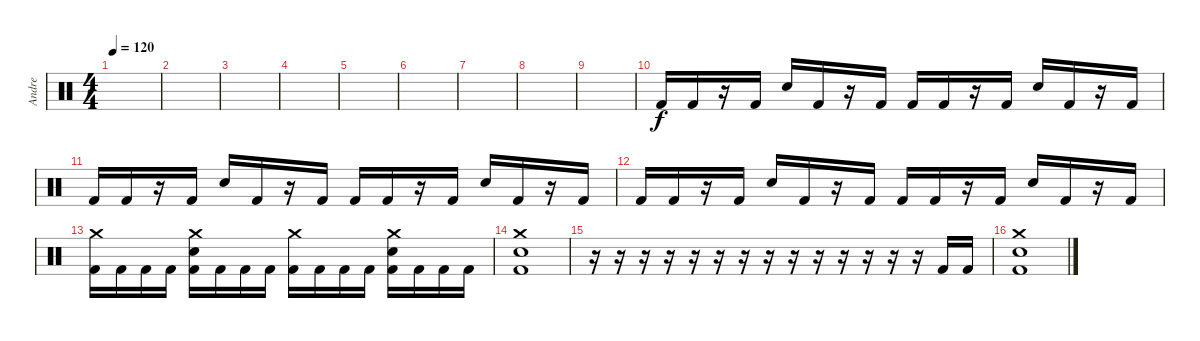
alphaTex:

\track ("Andre" "Andre") {instrument percussion}
\staff {score}
\articulation defaults
\ts (4 4)
\tempo 120
\clef neutral
\ks c
|
|
|
|
|
|
|
|
|
"Kick (hit) 2".16 "Kick (hit) 2".16 r.16 "Kick (hit) 2".16 "Snare (hit) 2".16 "Kick (hit) 2".16 r.16 "Kick (hit) 2".16 "Kick (hit) 2".16 "Kick (hit) 2".16 r.16 "Kick (hit) 2".16 "Snare (hit) 2".16 "Kick (hit) 2".16 r.16 "Kick (hit) 2".16 |
"Kick (hit) 2".16 "Kick (hit) 2".16 r.16 "Kick (hit) 2".16 "Snare (hit) 2".16 "Kick (hit) 2".16 r.16 "Kick (hit) 2".16 "Kick (hit) 2".16 "Kick (hit) 2".16 r.16 "Kick (hit) 2".16 "Snare (hit) 2".16 "Kick (hit) 2".16 r.16 "Kick (hit) 2".16 |
"Kick (hit) 2".16 "Kick (hit) 2".16 r.16 "Kick (hit) 2".16 "Snare (hit) 2".16 "Kick (hit) 2".16 r.16 "Kick (hit) 2".16 "Kick (hit) 2".16 "Kick (hit) 2".16 r.16 "Kick (hit) 2".16 "Snare (hit) 2".16 "Kick (hit) 2".16 r.16 "Kick (hit) 2".16 |
("Crash medium (hit)" "Kick (hit) 2").16 "Kick (hit) 2".16 "Kick (hit) 2".16 "Kick (hit) 2".16 ("Crash medium (hit)" "Snare (hit) 2" "Kick (hit) 2").16 "Kick (hit) 2".16 "Kick (hit) 2".16 "Kick (hit) 2".16 ("Crash medium (hit)" "Kick (hit) 2").16 "Kick (hit) 2".16 "Kick (hit) 2".16 "Kick (hit) 2".16 ("Crash medium (hit)" "Snare (hit) 2" "Kick (hit) 2").16 "Kick (hit) 2".16 "Kick (hit) 2".16 "Kick (hit) 2".16 |
("Crash medium (hit)" "Snare (hit) 2" "Kick (hit) 2").1 |
r.16 r.16 r.16 r.16 r.16 r.16 r.16 r.16 r.16 r.16 r.16 r.16 r.16 r.16 "Kick (hit) 2".16 "Kick (hit) 2".16 |
("Crash medium (hit)" "Snare (hit) 2" "Kick (hit) 2").1
